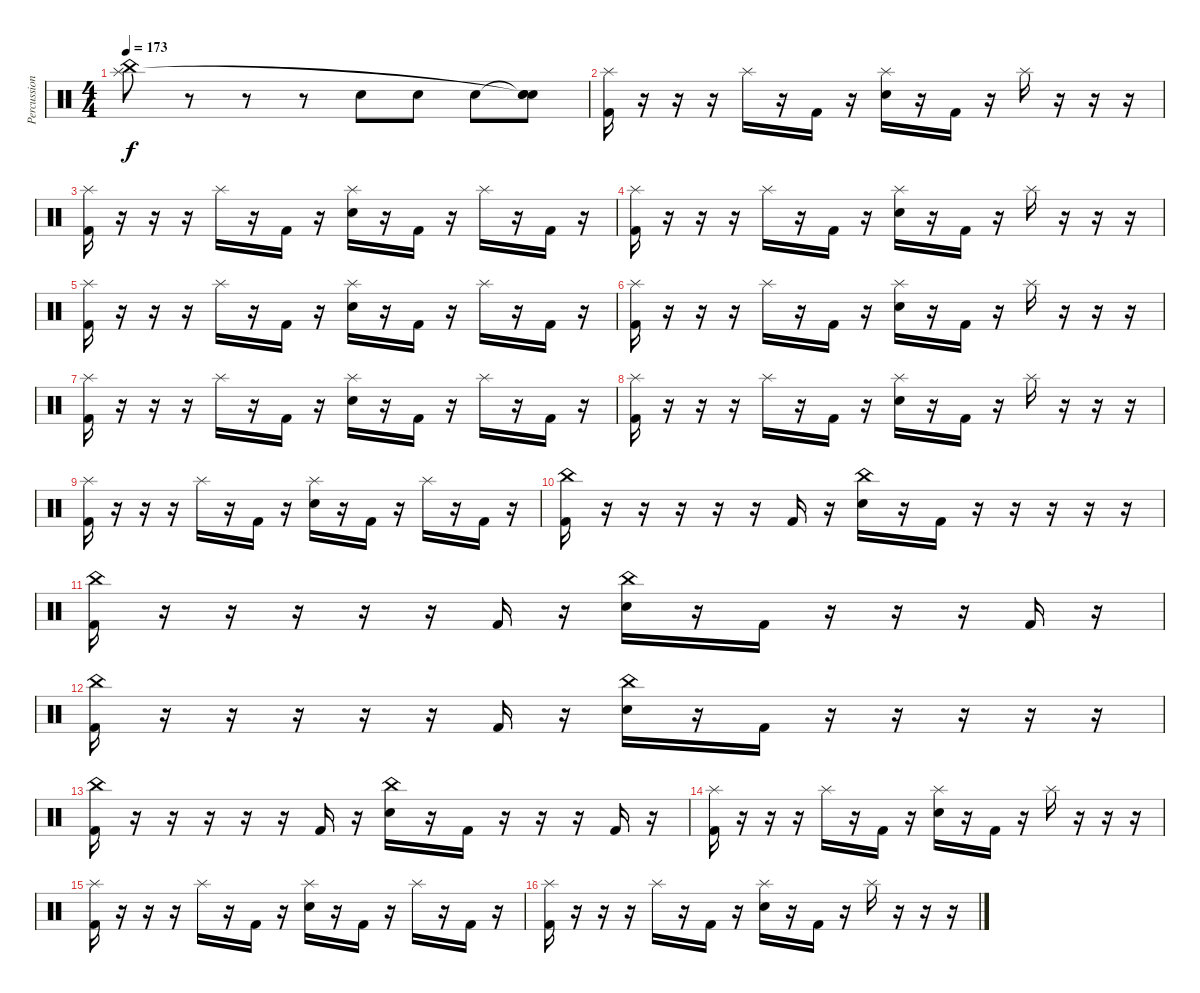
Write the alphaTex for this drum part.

\track ("Percussion" "Percussion") {instrument percussion}
\staff {score}
\articulation defaults
\ts (4 4)
\tempo 173
\clef neutral
\ks c
("China (hit)" "Splash (hit)").8{dy f} r.8 r.8 r.8 "Electric Snare (hit)".8 "Electric Snare (hit)".8 "Electric Snare (hit)".8 ("Snare (hit)"{t} "Snare (hit)"{t} "Electric Snare (hit)").8 |
("Splash (hit)" "Kick (hit) 2").16 r.16 r.16 r.16 "Splash (hit)".16 r.16 "Kick (hit) 2".16 r.16 ("Splash (hit)" "Electric Snare (hit)").16 r.16 "Kick (hit) 2".16 r.16 "Splash (hit)".16 r.16 r.16 r.16 |
("Splash (hit)" "Kick (hit) 2").16 r.16 r.16 r.16 "Splash (hit)".16 r.16 "Kick (hit) 2".16 r.16 ("Splash (hit)" "Electric Snare (hit)").16 r.16 "Kick (hit) 2".16 r.16 "Splash (hit)".16 r.16 "Kick (hit) 2".16 r.16 |
("Splash (hit)" "Kick (hit) 2").16 r.16 r.16 r.16 "Splash (hit)".16 r.16 "Kick (hit) 2".16 r.16 ("Splash (hit)" "Electric Snare (hit)").16 r.16 "Kick (hit) 2".16 r.16 "Splash (hit)".16 r.16 r.16 r.16 |
("Splash (hit)" "Kick (hit) 2").16 r.16 r.16 r.16 "Splash (hit)".16 r.16 "Kick (hit) 2".16 r.16 ("Splash (hit)" "Electric Snare (hit)").16 r.16 "Kick (hit) 2".16 r.16 "Splash (hit)".16 r.16 "Kick (hit) 2".16 r.16 |
("Splash (hit)" "Kick (hit) 2").16 r.16 r.16 r.16 "Splash (hit)".16 r.16 "Kick (hit) 2".16 r.16 ("Splash (hit)" "Electric Snare (hit)").16 r.16 "Kick (hit) 2".16 r.16 "Splash (hit)".16 r.16 r.16 r.16 |
("Splash (hit)" "Kick (hit) 2").16 r.16 r.16 r.16 "Splash (hit)".16 r.16 "Kick (hit) 2".16 r.16 ("Splash (hit)" "Electric Snare (hit)").16 r.16 "Kick (hit) 2".16 r.16 "Splash (hit)".16 r.16 "Kick (hit) 2".16 r.16 |
("Splash (hit)" "Kick (hit) 2").16 r.16 r.16 r.16 "Splash (hit)".16 r.16 "Kick (hit) 2".16 r.16 ("Splash (hit)" "Electric Snare (hit)").16 r.16 "Kick (hit) 2".16 r.16 "Splash (hit)".16 r.16 r.16 r.16 |
("Splash (hit)" "Kick (hit) 2").16 r.16 r.16 r.16 "Splash (hit)".16 r.16 "Kick (hit) 2".16 r.16 ("Splash (hit)" "Electric Snare (hit)").16 r.16 "Kick (hit) 2".16 r.16 "Splash (hit)".16 r.16 "Kick (hit) 2".16 r.16 |
("China (hit)" "Kick (hit) 2").16 r.16 r.16 r.16 r.16 r.16 "Kick (hit) 2".16 r.16 ("China (hit)" "Electric Snare (hit)").16 r.16 "Kick (hit) 2".16 r.16 r.16 r.16 r.16 r.16 |
("China (hit)" "Kick (hit) 2").16 r.16 r.16 r.16 r.16 r.16 "Kick (hit) 2".16 r.16 ("China (hit)" "Electric Snare (hit)").16 r.16 "Kick (hit) 2".16 r.16 r.16 r.16 "Kick (hit) 2".16 r.16 |
("China (hit)" "Kick (hit) 2").16 r.16 r.16 r.16 r.16 r.16 "Kick (hit) 2".16 r.16 ("China (hit)" "Electric Snare (hit)").16 r.16 "Kick (hit) 2".16 r.16 r.16 r.16 r.16 r.16 |
("China (hit)" "Kick (hit) 2").16 r.16 r.16 r.16 r.16 r.16 "Kick (hit) 2".16 r.16 ("China (hit)" "Electric Snare (hit)").16 r.16 "Kick (hit) 2".16 r.16 r.16 r.16 "Kick (hit) 2".16 r.16 |
("Splash (hit)" "Kick (hit) 2").16 r.16 r.16 r.16 "Splash (hit)".16 r.16 "Kick (hit) 2".16 r.16 ("Splash (hit)" "Electric Snare (hit)").16 r.16 "Kick (hit) 2".16 r.16 "Splash (hit)".16 r.16 r.16 r.16 |
("Splash (hit)" "Kick (hit) 2").16 r.16 r.16 r.16 "Splash (hit)".16 r.16 "Kick (hit) 2".16 r.16 ("Splash (hit)" "Electric Snare (hit)").16 r.16 "Kick (hit) 2".16 r.16 "Splash (hit)".16 r.16 "Kick (hit) 2".16 r.16 |
("Splash (hit)" "Kick (hit) 2").16 r.16 r.16 r.16 "Splash (hit)".16 r.16 "Kick (hit) 2".16 r.16 ("Splash (hit)" "Electric Snare (hit)").16 r.16 "Kick (hit) 2".16 r.16 "Splash (hit)".16 r.16 r.16 r.16
